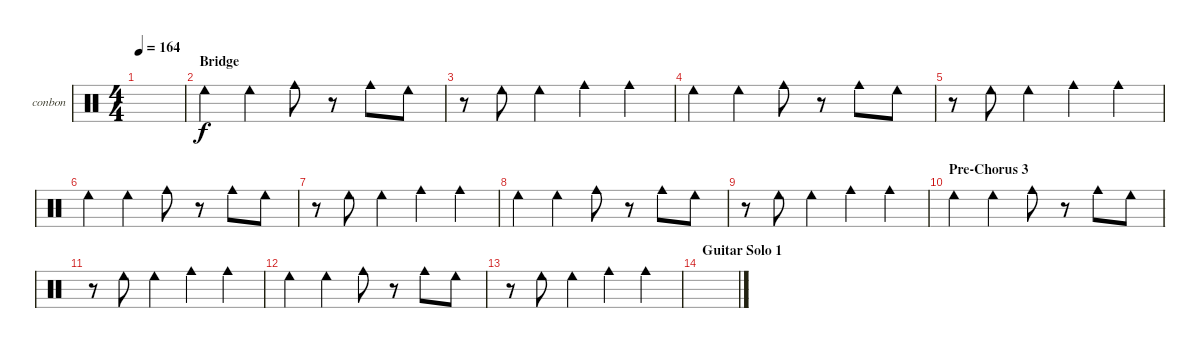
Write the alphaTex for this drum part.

\defaultSystemsLayout 4
\bracketExtendMode groupsimilarinstruments
\firstSystemTrackNameOrientation horizontal
\otherSystemsTrackNameOrientation horizontal
\track ("Bongos N Congas" "conbon") {instrument percussion}
\staff {score}
\articulation defaults
\ts (4 4)
\tempo 164
\clef neutral
\scale
0.333333
\ks c
|
\section ("" "Bridge")
\scale
0.333333 "Cowbell low (hit)".4 "Cowbell low (hit)".4 "Cowbell medium (hit)".8 r.8 "Cowbell medium (hit)".8 "Cowbell low (hit)".8 |
\scale
0.333333 r.8 "Cowbell low (hit)".8 "Cowbell low (hit)".4 "Cowbell medium (hit)".4 "Cowbell medium (hit)".4 |
\scale
0.333333 "Cowbell low (hit)".4 "Cowbell low (hit)".4 "Cowbell medium (hit)".8 r.8 "Cowbell medium (hit)".8 "Cowbell low (hit)".8 |
r.8 "Cowbell low (hit)".8 "Cowbell low (hit)".4 "Cowbell medium (hit)".4 "Cowbell medium (hit)".4 |
"Cowbell low (hit)".4 "Cowbell low (hit)".4 "Cowbell medium (hit)".8 r.8 "Cowbell medium (hit)".8 "Cowbell low (hit)".8 |
r.8 "Cowbell low (hit)".8 "Cowbell low (hit)".4 "Cowbell medium (hit)".4 "Cowbell medium (hit)".4 |
"Cowbell low (hit)".4 "Cowbell low (hit)".4 "Cowbell medium (hit)".8 r.8 "Cowbell medium (hit)".8 "Cowbell low (hit)".8 |
r.8 "Cowbell low (hit)".8 "Cowbell low (hit)".4 "Cowbell medium (hit)".4 "Cowbell medium (hit)".4 |
\section ("" "Pre-Chorus 3")
"Cowbell low (hit)".4 "Cowbell low (hit)".4 "Cowbell medium (hit)".8 r.8 "Cowbell medium (hit)".8 "Cowbell low (hit)".8 |
r.8 "Cowbell low (hit)".8 "Cowbell low (hit)".4 "Cowbell medium (hit)".4 "Cowbell medium (hit)".4 |
"Cowbell low (hit)".4 "Cowbell low (hit)".4 "Cowbell medium (hit)".8 r.8 "Cowbell medium (hit)".8 "Cowbell low (hit)".8 |
r.8 "Cowbell low (hit)".8 "Cowbell low (hit)".4 "Cowbell medium (hit)".4 "Cowbell medium (hit)".4 |
\section ("" "Guitar Solo 1")
